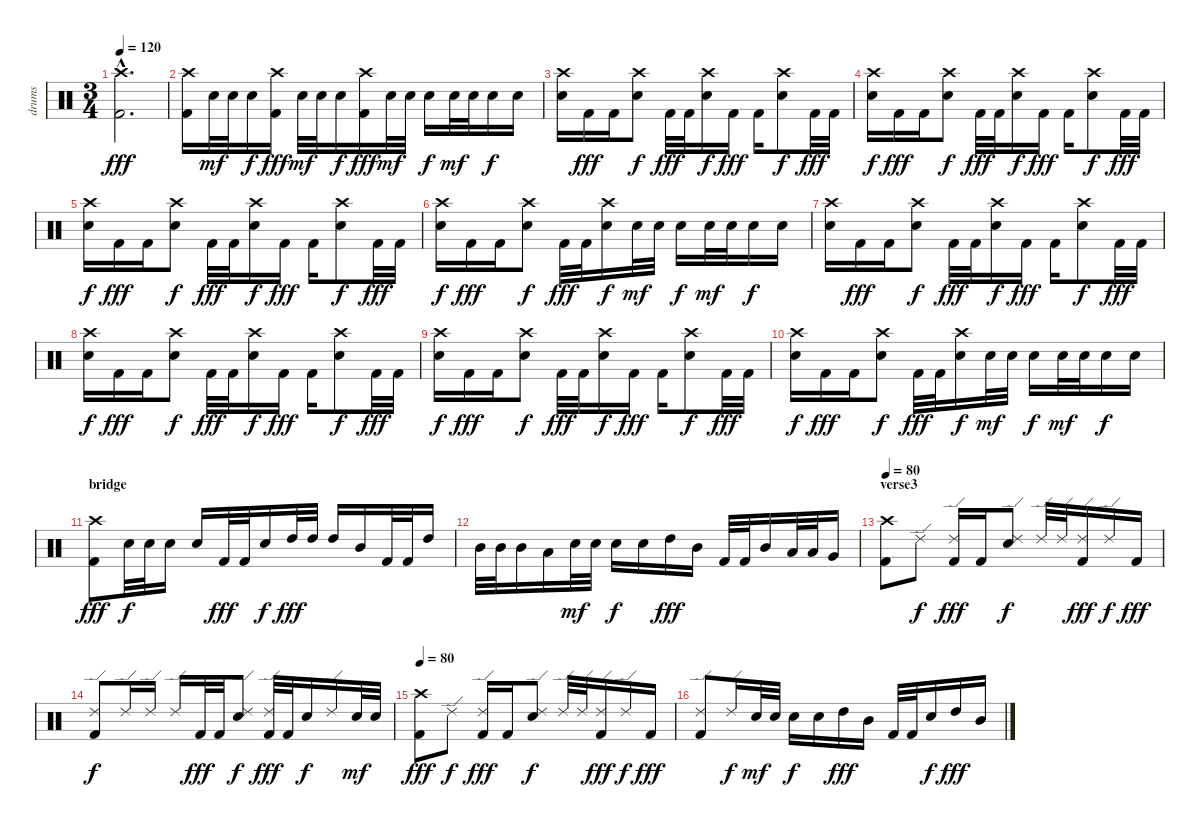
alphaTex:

\track ("drums" "drums") {instrument percussion}
\staff {score}
\articulation defaults
\ts (3 4)
\tempo 120
\clef neutral
\ks c
("Crash high (hit)"{hac} "Kick (hit) 2"{hac}).2{d dy fff} |
("Crash high (hit)" "Kick (hit) 2").16 "Snare (hit) 2".32{dy mf} "Snare (hit) 2".32 "Snare (hit) 2".16{dy f} ("Crash high (hit)" "Kick (hit) 2").16{dy fff} "Snare (hit) 2".32{dy mf} "Snare (hit) 2".32 "Snare (hit) 2".16{dy f} ("Crash high (hit)" "Kick (hit) 2").16{dy fff} "Snare (hit) 2".32{dy mf} "Snare (hit) 2".32 "Snare (hit) 2".16{dy f} "Snare (hit) 2".32{dy mf} "Snare (hit) 2".32 "Snare (hit) 2".16{dy f} "Snare (hit) 2".16 |
("Crash high (hit)" "Snare (hit) 2").16 "Kick (hit) 2".16{dy fff} "Kick (hit) 2".16 ("Crash high (hit)" "Snare (hit) 2").8{dy f} "Kick (hit) 2".32{dy fff} "Kick (hit) 2".32 ("Crash high (hit)" "Snare (hit) 2").16{dy f} "Kick (hit) 2".16{dy fff} "Kick (hit) 2".16 ("Crash high (hit)" "Snare (hit) 2").8{dy f} "Kick (hit) 2".32{dy fff} "Kick (hit) 2".32 |
("Crash high (hit)" "Snare (hit) 2").16{dy f} "Kick (hit) 2".16{dy fff} "Kick (hit) 2".16 ("Crash high (hit)" "Snare (hit) 2").8{dy f} "Kick (hit) 2".32{dy fff} "Kick (hit) 2".32 ("Crash high (hit)" "Snare (hit) 2").16{dy f} "Kick (hit) 2".16{dy fff} "Kick (hit) 2".16 ("Crash high (hit)" "Snare (hit) 2").8{dy f} "Kick (hit) 2".32{dy fff} "Kick (hit) 2".32 |
("Crash high (hit)" "Snare (hit) 2").16{dy f} "Kick (hit) 2".16{dy fff} "Kick (hit) 2".16 ("Crash high (hit)" "Snare (hit) 2").8{dy f} "Kick (hit) 2".32{dy fff} "Kick (hit) 2".32 ("Crash high (hit)" "Snare (hit) 2").16{dy f} "Kick (hit) 2".16{dy fff} "Kick (hit) 2".16 ("Crash high (hit)" "Snare (hit) 2").8{dy f} "Kick (hit) 2".32{dy fff} "Kick (hit) 2".32 |
("Crash high (hit)" "Snare (hit) 2").16{dy f} "Kick (hit) 2".16{dy fff} "Kick (hit) 2".16 ("Crash high (hit)" "Snare (hit) 2").8{dy f} "Kick (hit) 2".32{dy fff} "Kick (hit) 2".32 ("Crash high (hit)" "Snare (hit) 2").16{dy f} "Snare (hit) 2".32{dy mf} "Snare (hit) 2".32 "Snare (hit) 2".16{dy f} "Snare (hit) 2".32{dy mf} "Snare (hit) 2".32 "Snare (hit) 2".16{dy f} "Snare (hit) 2".16 |
("Crash high (hit)" "Snare (hit) 2").16 "Kick (hit) 2".16{dy fff} "Kick (hit) 2".16 ("Crash high (hit)" "Snare (hit) 2").8{dy f} "Kick (hit) 2".32{dy fff} "Kick (hit) 2".32 ("Crash high (hit)" "Snare (hit) 2").16{dy f} "Kick (hit) 2".16{dy fff} "Kick (hit) 2".16 ("Crash high (hit)" "Snare (hit) 2").8{dy f} "Kick (hit) 2".32{dy fff} "Kick (hit) 2".32 |
("Crash high (hit)" "Snare (hit) 2").16{dy f} "Kick (hit) 2".16{dy fff} "Kick (hit) 2".16 ("Crash high (hit)" "Snare (hit) 2").8{dy f} "Kick (hit) 2".32{dy fff} "Kick (hit) 2".32 ("Crash high (hit)" "Snare (hit) 2").16{dy f} "Kick (hit) 2".16{dy fff} "Kick (hit) 2".16 ("Crash high (hit)" "Snare (hit) 2").8{dy f} "Kick (hit) 2".32{dy fff} "Kick (hit) 2".32 |
("Crash high (hit)" "Snare (hit) 2").16{dy f} "Kick (hit) 2".16{dy fff} "Kick (hit) 2".16 ("Crash high (hit)" "Snare (hit) 2").8{dy f} "Kick (hit) 2".32{dy fff} "Kick (hit) 2".32 ("Crash high (hit)" "Snare (hit) 2").16{dy f} "Kick (hit) 2".16{dy fff} "Kick (hit) 2".16 ("Crash high (hit)" "Snare (hit) 2").8{dy f} "Kick (hit) 2".32{dy fff} "Kick (hit) 2".32 |
("Crash high (hit)" "Snare (hit) 2").16{dy f} "Kick (hit) 2".16{dy fff} "Kick (hit) 2".16 ("Crash high (hit)" "Snare (hit) 2").8{dy f} "Kick (hit) 2".32{dy fff} "Kick (hit) 2".32 ("Crash high (hit)" "Snare (hit) 2").16{dy f} "Snare (hit) 2".32{dy mf} "Snare (hit) 2".32 "Snare (hit) 2".16{dy f} "Snare (hit) 2".32{dy mf} "Snare (hit) 2".32 "Snare (hit) 2".16{dy f} "Snare (hit) 2".16 |
\section ("" "bridge")
("Crash high (hit)" "Kick (hit) 2").8{dy fff} "Snare (hit) 2".32{dy f} "Snare (hit) 2".32 "Snare (hit) 2".16 "Snare (hit) 2".16 "Kick (hit) 2".32{dy fff} "Kick (hit) 2".32 "Snare (hit) 2".16{dy f} "High Tom (hit)".32{dy fff} "High Tom (hit)".32 "High Tom (hit)".16 "Mid Tom (hit)".16 "Kick (hit) 2".32 "Kick (hit) 2".32 "High Tom (hit)".16 |
"Mid Tom (hit)".32 "Mid Tom (hit)".32 "Mid Tom (hit)".16 "Low Tom (hit)".16 "Snare (hit) 2".32{dy mf} "Snare (hit) 2".32 "Snare (hit) 2".16{dy f} "Snare (hit) 2".16 "High Tom (hit)".16{dy fff} "Mid Tom (hit)".16 "Kick (hit) 2".32 "Kick (hit) 2".32 "Mid Tom (hit)".16 "Low Tom (hit)".32 "Low Tom (hit)".32 "Very Low Tom (hit)".16 |
\section ("" "verse3")
\tempo 80
("Crash high (hit)" "Kick (hit) 2").8 "Ride (edge) 2".8{dy f} ("Ride (edge) 2" "Kick (hit) 2").16{dy fff} "Kick (hit) 2".16 ("Ride (edge) 2" "Snare (hit) 2").8{dy f} "Ride (edge) 2".32 "Ride (edge) 2".32 ("Ride (edge) 2" "Kick (hit) 2").16{dy fff} "Ride (edge) 2".16{dy f} "Kick (hit) 2".16{dy fff} |
("Ride (edge) 2" "Kick (hit) 2").8{dy f} "Ride (edge) 2".16 "Ride (edge) 2".16 "Ride (edge) 2".16 "Kick (hit) 2".32{dy fff} "Kick (hit) 2".32 ("Ride (edge) 2" "Snare (hit) 2").8{dy f} ("Ride (edge) 2" "Kick (hit) 2").32{dy fff} "Kick (hit) 2".32 "Snare (hit) 2".16{dy f} "Ride (edge) 2".16 "Snare (hit) 2".32{dy mf} "Snare (hit) 2".32 |
\tempo 80
("Crash high (hit)" "Kick (hit) 2").8{dy fff} "Ride (edge) 2".8{dy f} ("Ride (edge) 2" "Kick (hit) 2").16{dy fff} "Kick (hit) 2".16 ("Ride (edge) 2" "Snare (hit) 2").8{dy f} "Ride (edge) 2".32 "Ride (edge) 2".32 ("Ride (edge) 2" "Kick (hit) 2").16{dy fff} "Ride (edge) 2".16{dy f} "Kick (hit) 2".16{dy fff} |
("Ride (edge) 2" "Kick (hit) 2").8 "Ride (edge) 2".16{dy f} "Snare (hit) 2".32{dy mf} "Snare (hit) 2".32 "Snare (hit) 2".16{dy f} "Snare (hit) 2".16 "High Tom (hit)".16{dy fff} "Mid Tom (hit)".16 "Kick (hit) 2".32 "Kick (hit) 2".32 "Snare (hit) 2".16{dy f} "High Tom (hit)".16{dy fff} "Mid Tom (hit)".16
